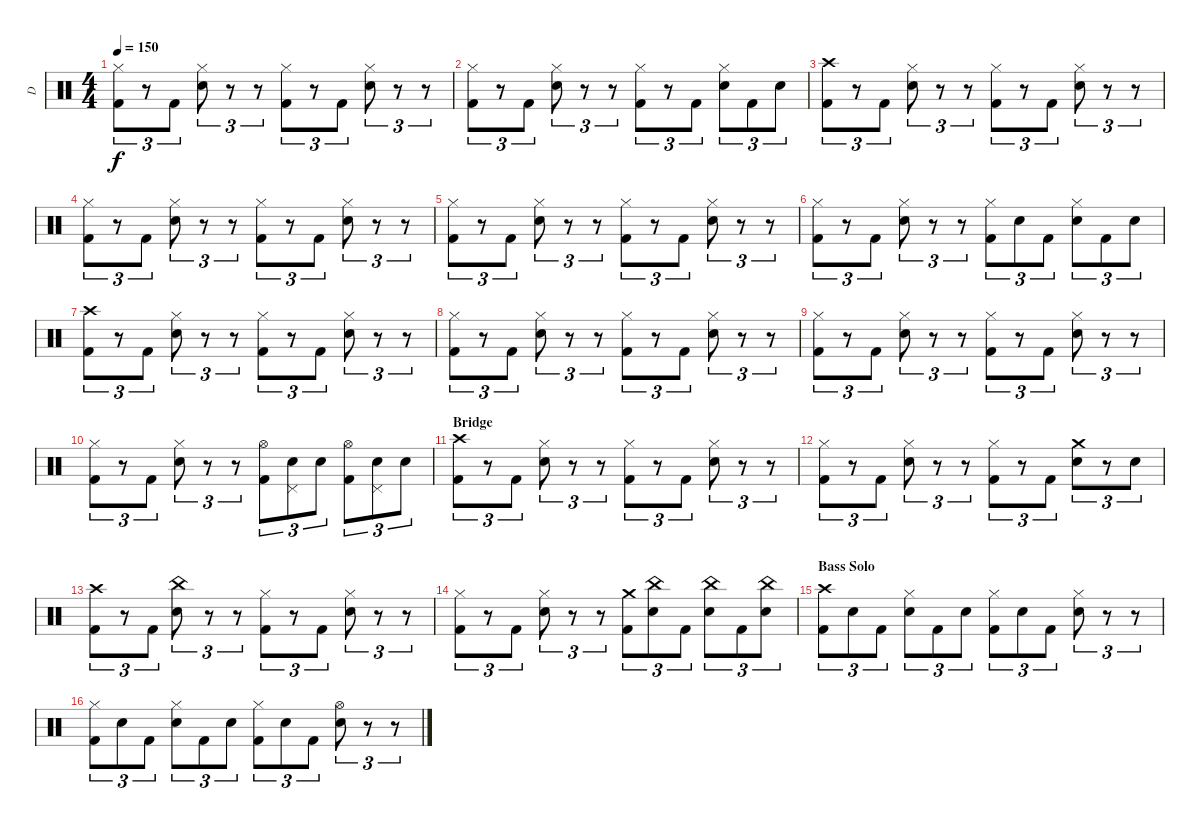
\track ("D" "D") {instrument percussion}
\staff {score}
\articulation defaults
\ts (4 4)
\tempo 150
\clef neutral
\ks c
("Hi-Hat (closed)" "Kick (hit) 2").8{tu (3 2) dy f} r.8{tu (3 2)} "Kick (hit) 2".8{tu (3 2)} ("Hi-Hat (closed)" "Electric Snare (hit)").8{tu (3 2)} r.8{tu (3 2)} r.8{tu (3 2)} ("Hi-Hat (closed)" "Kick (hit) 2").8{tu (3 2)} r.8{tu (3 2)} "Kick (hit) 2".8{tu (3 2)} ("Hi-Hat (closed)" "Electric Snare (hit)").8{tu (3 2)} r.8{tu (3 2)} r.8{tu (3 2)} |
("Hi-Hat (closed)" "Kick (hit) 2").8{tu (3 2)} r.8{tu (3 2)} "Kick (hit) 2".8{tu (3 2)} ("Hi-Hat (closed)" "Electric Snare (hit)").8{tu (3 2)} r.8{tu (3 2)} r.8{tu (3 2)} ("Hi-Hat (closed)" "Kick (hit) 2").8{tu (3 2)} r.8{tu (3 2)} "Kick (hit) 2".8{tu (3 2)} ("Hi-Hat (closed)" "Electric Snare (hit)").8{tu (3 2)} "Kick (hit) 2".8{tu (3 2)} "Electric Snare (hit)".8{tu (3 2)} |
("Crash high (hit)" "Kick (hit) 2").8{tu (3 2)} r.8{tu (3 2)} "Kick (hit) 2".8{tu (3 2)} ("Hi-Hat (closed)" "Electric Snare (hit)").8{tu (3 2)} r.8{tu (3 2)} r.8{tu (3 2)} ("Hi-Hat (closed)" "Kick (hit) 2").8{tu (3 2)} r.8{tu (3 2)} "Kick (hit) 2".8{tu (3 2)} ("Hi-Hat (closed)" "Electric Snare (hit)").8{tu (3 2)} r.8{tu (3 2)} r.8{tu (3 2)} |
("Hi-Hat (closed)" "Kick (hit) 2").8{tu (3 2)} r.8{tu (3 2)} "Kick (hit) 2".8{tu (3 2)} ("Hi-Hat (closed)" "Electric Snare (hit)").8{tu (3 2)} r.8{tu (3 2)} r.8{tu (3 2)} ("Hi-Hat (closed)" "Kick (hit) 2").8{tu (3 2)} r.8{tu (3 2)} "Kick (hit) 2".8{tu (3 2)} ("Hi-Hat (closed)" "Electric Snare (hit)").8{tu (3 2)} r.8{tu (3 2)} r.8{tu (3 2)} |
("Hi-Hat (closed)" "Kick (hit) 2").8{tu (3 2)} r.8{tu (3 2)} "Kick (hit) 2".8{tu (3 2)} ("Hi-Hat (closed)" "Electric Snare (hit)").8{tu (3 2)} r.8{tu (3 2)} r.8{tu (3 2)} ("Hi-Hat (closed)" "Kick (hit) 2").8{tu (3 2)} r.8{tu (3 2)} "Kick (hit) 2".8{tu (3 2)} ("Hi-Hat (closed)" "Electric Snare (hit)").8{tu (3 2)} r.8{tu (3 2)} r.8{tu (3 2)} |
("Hi-Hat (closed)" "Kick (hit) 2").8{tu (3 2)} r.8{tu (3 2)} "Kick (hit) 2".8{tu (3 2)} ("Hi-Hat (closed)" "Electric Snare (hit)").8{tu (3 2)} r.8{tu (3 2)} r.8{tu (3 2)} ("Hi-Hat (closed)" "Kick (hit) 2").8{tu (3 2)} "Electric Snare (hit)".8{tu (3 2)} "Kick (hit) 2".8{tu (3 2)} ("Hi-Hat (closed)" "Electric Snare (hit)").8{tu (3 2)} "Kick (hit) 2".8{tu (3 2)} "Electric Snare (hit)".8{tu (3 2)} |
("Crash high (hit)" "Kick (hit) 2").8{tu (3 2)} r.8{tu (3 2)} "Kick (hit) 2".8{tu (3 2)} ("Hi-Hat (closed)" "Electric Snare (hit)").8{tu (3 2)} r.8{tu (3 2)} r.8{tu (3 2)} ("Hi-Hat (closed)" "Kick (hit) 2").8{tu (3 2)} r.8{tu (3 2)} "Kick (hit) 2".8{tu (3 2)} ("Hi-Hat (closed)" "Electric Snare (hit)").8{tu (3 2)} r.8{tu (3 2)} r.8{tu (3 2)} |
("Hi-Hat (closed)" "Kick (hit) 2").8{tu (3 2)} r.8{tu (3 2)} "Kick (hit) 2".8{tu (3 2)} ("Hi-Hat (closed)" "Electric Snare (hit)").8{tu (3 2)} r.8{tu (3 2)} r.8{tu (3 2)} ("Hi-Hat (closed)" "Kick (hit) 2").8{tu (3 2)} r.8{tu (3 2)} "Kick (hit) 2".8{tu (3 2)} ("Hi-Hat (closed)" "Electric Snare (hit)").8{tu (3 2)} r.8{tu (3 2)} r.8{tu (3 2)} |
("Hi-Hat (closed)" "Kick (hit) 2").8{tu (3 2)} r.8{tu (3 2)} "Kick (hit) 2".8{tu (3 2)} ("Hi-Hat (closed)" "Electric Snare (hit)").8{tu (3 2)} r.8{tu (3 2)} r.8{tu (3 2)} ("Hi-Hat (closed)" "Kick (hit) 2").8{tu (3 2)} r.8{tu (3 2)} "Kick (hit) 2".8{tu (3 2)} ("Hi-Hat (closed)" "Electric Snare (hit)").8{tu (3 2)} r.8{tu (3 2)} r.8{tu (3 2)} |
("Hi-Hat (closed)" "Kick (hit) 2").8{tu (3 2)} r.8{tu (3 2)} "Kick (hit) 2".8{tu (3 2)} ("Hi-Hat (closed)" "Electric Snare (hit)").8{tu (3 2)} r.8{tu (3 2)} r.8{tu (3 2)} ("Hi-Hat (open)" "Kick (hit) 2").8{tu (3 2)} ("Pedal Hi-Hat (hit)" "Electric Snare (hit)").8{tu (3 2)} "Electric Snare (hit)".8{tu (3 2)} ("Hi-Hat (open)" "Kick (hit) 2").8{tu (3 2)} ("Pedal Hi-Hat (hit)" "Electric Snare (hit)").8{tu (3 2)} "Electric Snare (hit)".8{tu (3 2)} |
\section ("" "Bridge")
("Crash high (hit)" "Kick (hit) 2").8{tu (3 2)} r.8{tu (3 2)} "Kick (hit) 2".8{tu (3 2)} ("Hi-Hat (closed)" "Electric Snare (hit)").8{tu (3 2)} r.8{tu (3 2)} r.8{tu (3 2)} ("Hi-Hat (closed)" "Kick (hit) 2").8{tu (3 2)} r.8{tu (3 2)} "Kick (hit) 2".8{tu (3 2)} ("Hi-Hat (closed)" "Electric Snare (hit)").8{tu (3 2)} r.8{tu (3 2)} r.8{tu (3 2)} |
("Hi-Hat (closed)" "Kick (hit) 2").8{tu (3 2)} r.8{tu (3 2)} "Kick (hit) 2".8{tu (3 2)} ("Hi-Hat (closed)" "Electric Snare (hit)").8{tu (3 2)} r.8{tu (3 2)} r.8{tu (3 2)} ("Hi-Hat (closed)" "Kick (hit) 2").8{tu (3 2)} r.8{tu (3 2)} "Kick (hit) 2".8{tu (3 2)} ("Crash medium (hit)" "Electric Snare (hit)").8{tu (3 2)} r.8{tu (3 2)} "Electric Snare (hit)".8{tu (3 2)} |
("Crash high (hit)" "Kick (hit) 2").8{tu (3 2)} r.8{tu (3 2)} "Kick (hit) 2".8{tu (3 2)} ("China (hit)" "Electric Snare (hit)").8{tu (3 2)} r.8{tu (3 2)} r.8{tu (3 2)} ("Hi-Hat (closed)" "Kick (hit) 2").8{tu (3 2)} r.8{tu (3 2)} "Kick (hit) 2".8{tu (3 2)} ("Hi-Hat (closed)" "Electric Snare (hit)").8{tu (3 2)} r.8{tu (3 2)} r.8{tu (3 2)} |
("Hi-Hat (closed)" "Kick (hit) 2").8{tu (3 2)} r.8{tu (3 2)} "Kick (hit) 2".8{tu (3 2)} ("Hi-Hat (closed)" "Electric Snare (hit)").8{tu (3 2)} r.8{tu (3 2)} r.8{tu (3 2)} ("Crash medium (hit)" "Kick (hit) 2").8{tu (3 2)} ("China (hit)" "Electric Snare (hit)").8{tu (3 2)} "Kick (hit) 2".8{tu (3 2)} ("China (hit)" "Electric Snare (hit)").8{tu (3 2)} "Kick (hit) 2".8{tu (3 2)} ("China (hit)" "Electric Snare (hit)").8{tu (3 2)} |
\section ("" "Bass Solo")
("Crash high (hit)" "Kick (hit) 2").8{tu (3 2)} "Electric Snare (hit)".8{tu (3 2)} "Kick (hit) 2".8{tu (3 2)} ("Hi-Hat (closed)" "Electric Snare (hit)").8{tu (3 2)} "Kick (hit) 2".8{tu (3 2)} "Electric Snare (hit)".8{tu (3 2)} ("Hi-Hat (closed)" "Kick (hit) 2").8{tu (3 2)} "Electric Snare (hit)".8{tu (3 2)} "Kick (hit) 2".8{tu (3 2)} ("Hi-Hat (closed)" "Electric Snare (hit)").8{tu (3 2)} r.8{tu (3 2)} r.8{tu (3 2)} |
("Hi-Hat (closed)" "Kick (hit) 2").8{tu (3 2)} "Electric Snare (hit)".8{tu (3 2)} "Kick (hit) 2".8{tu (3 2)} ("Hi-Hat (closed)" "Electric Snare (hit)").8{tu (3 2)} "Kick (hit) 2".8{tu (3 2)} "Electric Snare (hit)".8{tu (3 2)} ("Hi-Hat (closed)" "Kick (hit) 2").8{tu (3 2)} "Electric Snare (hit)".8{tu (3 2)} "Kick (hit) 2".8{tu (3 2)} ("Hi-Hat (open)" "Electric Snare (hit)").8{tu (3 2)} r.8{tu (3 2)} r.8{tu (3 2)}
